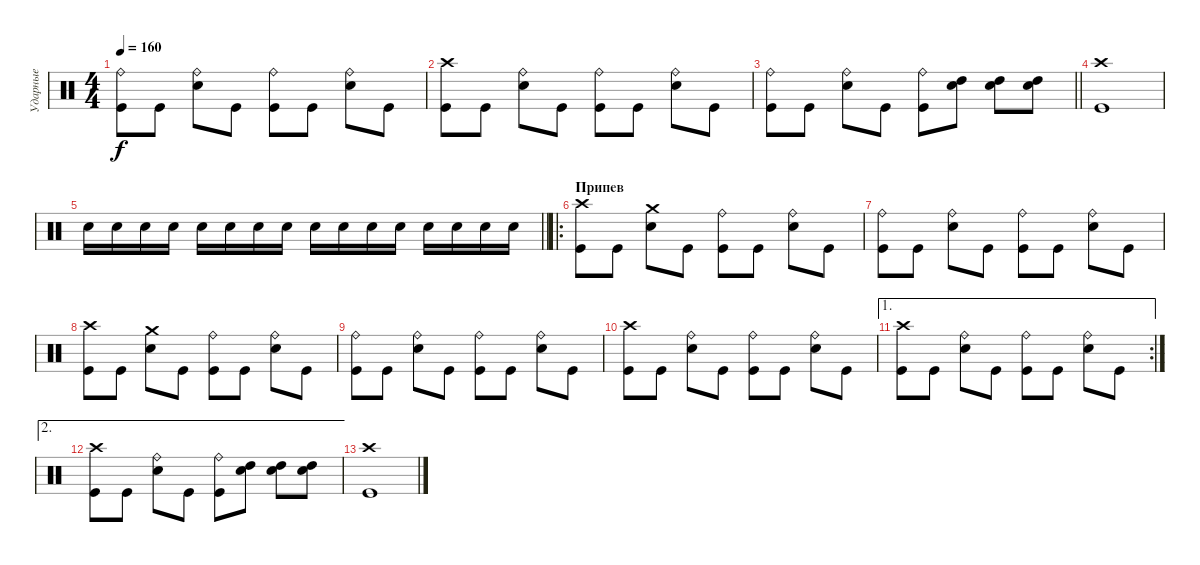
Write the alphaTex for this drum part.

\track ("Ударные" "Ударные") {instrument percussion}
\staff {score}
\articulation defaults
\ts (4 4)
\tempo 160
\clef neutral
\ks c
("Ride (bell)" "Kick (hit)").8{dy f} "Kick (hit)".8 ("Ride (bell)" "Electric Snare (hit)").8 "Kick (hit)".8 ("Ride (bell)" "Kick (hit)").8 "Kick (hit)".8 ("Ride (bell)" "Electric Snare (hit)").8 "Kick (hit)".8 |
("Crash high (hit)" "Kick (hit)").8 "Kick (hit)".8 ("Ride (bell)" "Electric Snare (hit)").8 "Kick (hit)".8 ("Ride (bell)" "Kick (hit)").8 "Kick (hit)".8 ("Ride (bell)" "Electric Snare (hit)").8 "Kick (hit)".8 |
\barLineRight lightlight
("Ride (bell)" "Kick (hit)").8 "Kick (hit)".8 ("Ride (bell)" "Electric Snare (hit)").8 "Kick (hit)".8 ("Ride (bell)" "Kick (hit)").8 ("High Tom (hit)" "Electric Snare (hit)").8 ("High Tom (hit)" "Electric Snare (hit)").8 ("High Tom (hit)" "Electric Snare (hit)").8 |
("Crash high (hit)" "Kick (hit)").1 |
\barLineRight lightlight "Electric Snare (hit)".16 "Electric Snare (hit)".16 "Electric Snare (hit)".16 "Electric Snare (hit)".16 "Electric Snare (hit)".16 "Electric Snare (hit)".16 "Electric Snare (hit)".16 "Electric Snare (hit)".16 "Electric Snare (hit)".16 "Electric Snare (hit)".16 "Electric Snare (hit)".16 "Electric Snare (hit)".16 "Electric Snare (hit)".16 "Electric Snare (hit)".16 "Electric Snare (hit)".16 "Electric Snare (hit)".16
|
\ro
\section ("" "Припев")
("Crash high (hit)" "Kick (hit)").8 "Kick (hit)".8 ("Crash medium (hit)" "Electric Snare (hit)").8 "Kick (hit)".8 ("Ride (bell)" "Kick (hit)").8 "Kick (hit)".8 ("Ride (bell)" "Electric Snare (hit)").8 "Kick (hit)".8 |
("Ride (bell)" "Kick (hit)").8 "Kick (hit)".8 ("Ride (bell)" "Electric Snare (hit)").8 "Kick (hit)".8 ("Ride (bell)" "Kick (hit)").8 "Kick (hit)".8 ("Ride (bell)" "Electric Snare (hit)").8 "Kick (hit)".8 |
("Crash high (hit)" "Kick (hit)").8 "Kick (hit)".8 ("Crash medium (hit)" "Electric Snare (hit)").8 "Kick (hit)".8 ("Ride (bell)" "Kick (hit)").8 "Kick (hit)".8 ("Ride (bell)" "Electric Snare (hit)").8 "Kick (hit)".8 |
("Ride (bell)" "Kick (hit)").8 "Kick (hit)".8 ("Ride (bell)" "Electric Snare (hit)").8 "Kick (hit)".8 ("Ride (bell)" "Kick (hit)").8 "Kick (hit)".8 ("Ride (bell)" "Electric Snare (hit)").8 "Kick (hit)".8 |
("Crash high (hit)" "Kick (hit)").8 "Kick (hit)".8 ("Ride (bell)" "Electric Snare (hit)").8 "Kick (hit)".8 ("Ride (bell)" "Kick (hit)").8 "Kick (hit)".8 ("Ride (bell)" "Electric Snare (hit)").8 "Kick (hit)".8 |
\ae 1
\rc 2
("Crash high (hit)" "Kick (hit)").8 "Kick (hit)".8 ("Ride (bell)" "Electric Snare (hit)").8 "Kick (hit)".8 ("Ride (bell)" "Kick (hit)").8 "Kick (hit)".8 ("Ride (bell)" "Electric Snare (hit)").8 "Kick (hit)".8 |
\ae 2
("Crash high (hit)" "Kick (hit)").8 "Kick (hit)".8 ("Ride (bell)" "Electric Snare (hit)").8 "Kick (hit)".8 ("Ride (bell)" "Kick (hit)").8 ("High Tom (hit)" "Electric Snare (hit)").8 ("High Tom (hit)" "Electric Snare (hit)").8 ("High Tom (hit)" "Electric Snare (hit)").8 |
("Crash high (hit)" "Kick (hit)").1
